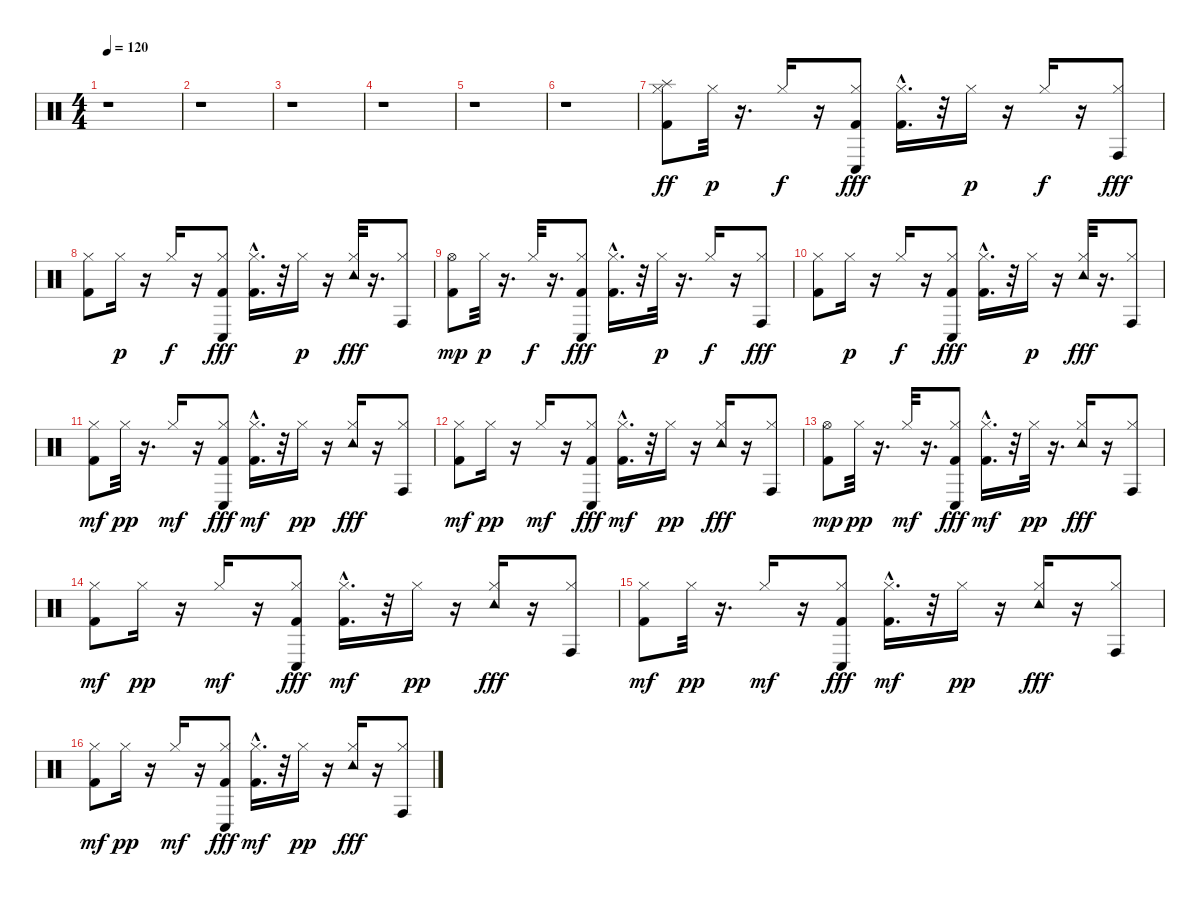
\track "" {instrument percussion}
\staff {score}
\articulation defaults
\ts (4 4)
\tempo 120
\clef neutral
\ks c
r.1{dy ff} |
r.1 |
r.1 |
r.1 |
r.1 |
r.1 |
("Kick (hit) 2" "Hi-Hat (closed)" "Splash (hit)").8 "Hi-Hat (closed)".32{dy p} r.16{d} "Hi-Hat (closed)".16{dy f} r.16 ("Kick (hit) 2" "Hi-Hat (closed)" "Conga low (hit)").8{dy fff} ("Kick (hit) 2"{hac} "Hi-Hat (closed)").16{d} r.32 "Hi-Hat (closed)".16{dy p} r.16 "Hi-Hat (closed)".16{dy f} r.16 ("Hi-Hat (closed)" "Conga high (hit)").8{dy fff} |
("Kick (hit) 2" "Hi-Hat (closed)").8 "Hi-Hat (closed)".16{dy p} r.16 "Hi-Hat (closed)".16{dy f} r.16 ("Kick (hit) 2" "Hi-Hat (closed)" "Conga low (hit)").8{dy fff} ("Kick (hit) 2"{hac} "Hi-Hat (closed)").16{d} r.32 "Hi-Hat (closed)".16{dy p} r.16 ("Hi-Hat (closed)" "Tambourine (hit)").32{dy fff} r.16{d} ("Hi-Hat (closed)" "Conga high (hit)").8 |
("Kick (hit) 2" "Hi-Hat (open)").8{dy mp} "Hi-Hat (closed)".32{dy p} r.16{d} "Hi-Hat (closed)".32{dy f} r.16{d} ("Kick (hit) 2" "Hi-Hat (closed)" "Conga low (hit)").8{dy fff} ("Kick (hit) 2"{hac} "Hi-Hat (closed)").16{d} r.32 "Hi-Hat (closed)".32{dy p} r.16{d} "Hi-Hat (closed)".16{dy f} r.16 ("Hi-Hat (closed)" "Conga high (hit)").8{dy fff} |
("Kick (hit) 2" "Hi-Hat (closed)").8 "Hi-Hat (closed)".16{dy p} r.16 "Hi-Hat (closed)".16{dy f} r.16 ("Kick (hit) 2" "Hi-Hat (closed)" "Conga low (hit)").8{dy fff} ("Kick (hit) 2"{hac} "Hi-Hat (closed)").16{d} r.32 "Hi-Hat (closed)".16{dy p} r.16 ("Hi-Hat (closed)" "Tambourine (hit)").32{dy fff} r.16{d} ("Hi-Hat (closed)" "Conga high (hit)").8 |
("Kick (hit) 2" "Hi-Hat (closed)").8{dy mf} "Hi-Hat (closed)".32{dy pp} r.16{d} "Hi-Hat (closed)".16{dy mf} r.16 ("Kick (hit) 2" "Hi-Hat (closed)" "Conga low (hit)").8{dy fff} ("Kick (hit) 2"{hac} "Hi-Hat (closed)").16{d dy mf} r.32 "Hi-Hat (closed)".16{dy pp} r.16 ("Hi-Hat (closed)" "Tambourine (hit)").16{dy fff} r.16 ("Hi-Hat (closed)" "Conga high (hit)").8 |
("Kick (hit) 2" "Hi-Hat (closed)").8{dy mf} "Hi-Hat (closed)".16{dy pp} r.16 "Hi-Hat (closed)".16{dy mf} r.16 ("Kick (hit) 2" "Hi-Hat (closed)" "Conga low (hit)").8{dy fff} ("Kick (hit) 2"{hac} "Hi-Hat (closed)").16{d dy mf} r.32 "Hi-Hat (closed)".16{dy pp} r.16 ("Hi-Hat (closed)" "Tambourine (hit)").16{dy fff} r.16 ("Hi-Hat (closed)" "Conga high (hit)").8 |
("Kick (hit) 2" "Hi-Hat (open)").8{dy mp} "Hi-Hat (closed)".32{dy pp} r.16{d} "Hi-Hat (closed)".32{dy mf} r.16{d} ("Kick (hit) 2" "Hi-Hat (closed)" "Conga low (hit)").8{dy fff} ("Kick (hit) 2"{hac} "Hi-Hat (closed)").16{d dy mf} r.32 "Hi-Hat (closed)".32{dy pp} r.16{d} ("Hi-Hat (closed)" "Tambourine (hit)").16{dy fff} r.16 ("Hi-Hat (closed)" "Conga high (hit)").8 |
("Kick (hit) 2" "Hi-Hat (closed)").8{dy mf} "Hi-Hat (closed)".16{dy pp} r.16 "Hi-Hat (closed)".16{dy mf} r.16 ("Kick (hit) 2" "Hi-Hat (closed)" "Conga low (hit)").8{dy fff} ("Kick (hit) 2"{hac} "Hi-Hat (closed)").16{d dy mf} r.32 "Hi-Hat (closed)".16{dy pp} r.16 ("Hi-Hat (closed)" "Tambourine (hit)").16{dy fff} r.16 ("Hi-Hat (closed)" "Conga high (hit)").8 |
("Kick (hit) 2" "Hi-Hat (closed)").8{dy mf} "Hi-Hat (closed)".32{dy pp} r.16{d} "Hi-Hat (closed)".16{dy mf} r.16 ("Kick (hit) 2" "Hi-Hat (closed)" "Conga low (hit)").8{dy fff} ("Kick (hit) 2"{hac} "Hi-Hat (closed)").16{d dy mf} r.32 "Hi-Hat (closed)".16{dy pp} r.16 ("Hi-Hat (closed)" "Tambourine (hit)").16{dy fff} r.16 ("Hi-Hat (closed)" "Conga high (hit)").8 |
("Kick (hit) 2" "Hi-Hat (closed)").8{dy mf} "Hi-Hat (closed)".16{dy pp} r.16 "Hi-Hat (closed)".16{dy mf} r.16 ("Kick (hit) 2" "Hi-Hat (closed)" "Conga low (hit)").8{dy fff} ("Kick (hit) 2"{hac} "Hi-Hat (closed)").16{d dy mf} r.32 "Hi-Hat (closed)".16{dy pp} r.16 ("Hi-Hat (closed)" "Tambourine (hit)").16{dy fff} r.16 ("Hi-Hat (closed)" "Conga high (hit)").8
